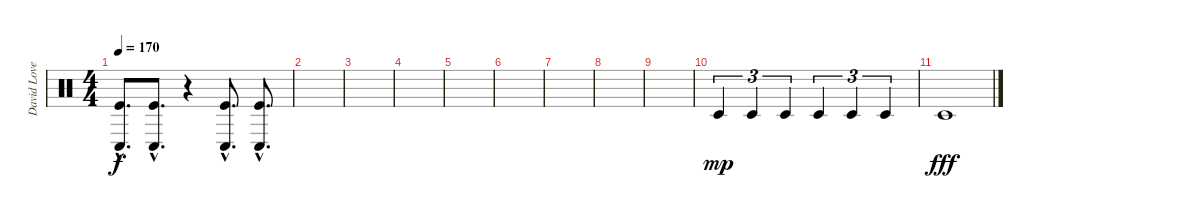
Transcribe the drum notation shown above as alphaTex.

\track ("David Lovering (Drums)" "David Love") {instrument percussion}
\staff {score}
\articulation defaults
\ts (4 4)
\tempo 170
\clef neutral
\ks c
("Conga low (hit)"{hac} "Kick (hit)"{hac}).8{d dy f} ("Conga low (hit)"{hac} "Kick (hit)"{hac}).8{d} r.4 ("Conga low (hit)"{hac} "Kick (hit)"{hac}).8{d} ("Conga low (hit)"{hac} "Kick (hit)"{hac}).8{d} |
|
|
|
|
|
|
|
|
"Timbale low (hit)".4{tu (3 2) dy mp} "Timbale low (hit)".4{tu (3 2)} "Timbale low (hit)".4{tu (3 2)} "Timbale low (hit)".4{tu (3 2)} "Timbale low (hit)".4{tu (3 2)} "Timbale low (hit)".4{tu (3 2)} |
"Timbale low (hit)".1{dy fff}
